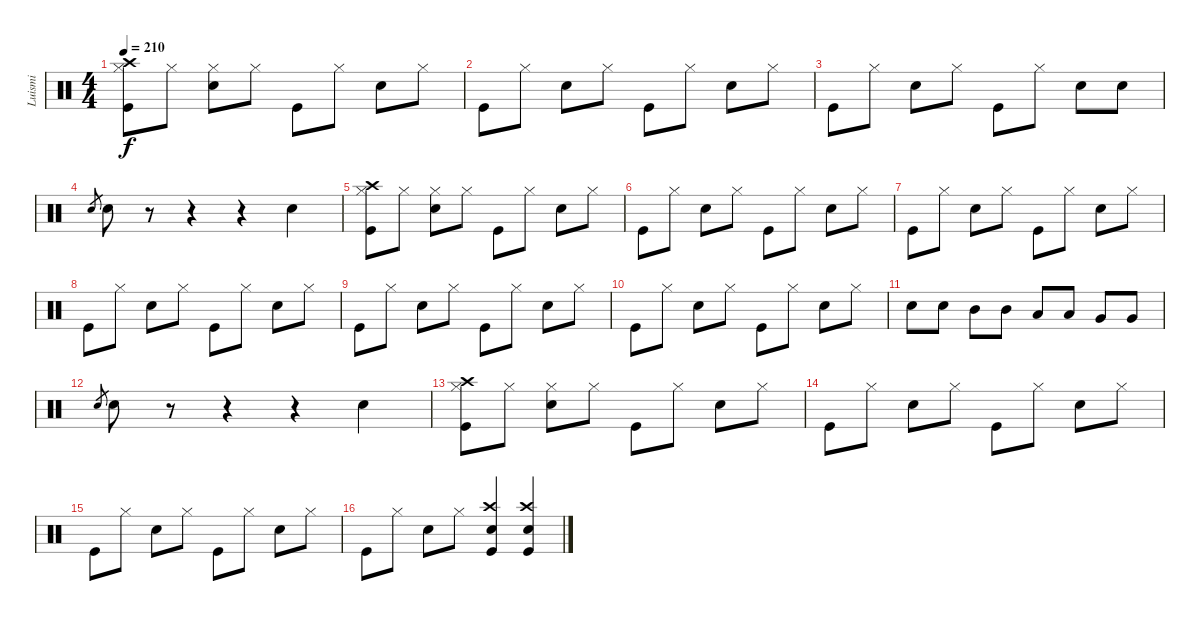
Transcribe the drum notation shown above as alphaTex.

\track ("Luismi" "Luismi") {instrument percussion}
\staff {score}
\articulation defaults
\ts (4 4)
\tempo 210
\clef neutral
\ks c
("Kick (hit)" "Crash high (hit)" "Hi-Hat (closed)").8{dy f} "Hi-Hat (closed)".8 ("Snare (hit) 2" "Hi-Hat (closed)").8 "Hi-Hat (closed)".8 "Kick (hit)".8 "Hi-Hat (closed)".8 "Snare (hit) 2".8 "Hi-Hat (closed)".8 |
"Kick (hit)".8 "Hi-Hat (closed)".8 "Snare (hit) 2".8 "Hi-Hat (closed)".8 "Kick (hit)".8 "Hi-Hat (closed)".8 "Snare (hit) 2".8 "Hi-Hat (closed)".8 |
"Kick (hit)".8 "Hi-Hat (closed)".8 "Snare (hit) 2".8 "Hi-Hat (closed)".8 "Kick (hit)".8 "Hi-Hat (closed)".8 "Snare (hit) 2".8 "Snare (hit) 2".8 |
"Snare (hit) 2".8{gr} "Snare (hit) 2".8 r.8 r.4 r.4 "Snare (hit) 2".4 |
("Kick (hit)" "Crash high (hit)" "Hi-Hat (closed)").8 "Hi-Hat (closed)".8 ("Snare (hit) 2" "Hi-Hat (closed)").8 "Hi-Hat (closed)".8 "Kick (hit)".8 "Hi-Hat (closed)".8 "Snare (hit) 2".8 "Hi-Hat (closed)".8 |
"Kick (hit)".8 "Hi-Hat (closed)".8 "Snare (hit) 2".8 "Hi-Hat (closed)".8 "Kick (hit)".8 "Hi-Hat (closed)".8 "Snare (hit) 2".8 "Hi-Hat (closed)".8 |
"Kick (hit)".8 "Hi-Hat (closed)".8 "Snare (hit) 2".8 "Hi-Hat (closed)".8 "Kick (hit)".8 "Hi-Hat (closed)".8 "Snare (hit) 2".8 "Hi-Hat (closed)".8 |
"Kick (hit)".8 "Hi-Hat (closed)".8 "Snare (hit) 2".8 "Hi-Hat (closed)".8 "Kick (hit)".8 "Hi-Hat (closed)".8 "Snare (hit) 2".8 "Hi-Hat (closed)".8 |
"Kick (hit)".8 "Hi-Hat (closed)".8 "Snare (hit) 2".8 "Hi-Hat (closed)".8 "Kick (hit)".8 "Hi-Hat (closed)".8 "Snare (hit) 2".8 "Hi-Hat (closed)".8 |
"Kick (hit)".8 "Hi-Hat (closed)".8 "Snare (hit) 2".8 "Hi-Hat (closed)".8 "Kick (hit)".8 "Hi-Hat (closed)".8 "Snare (hit) 2".8 "Hi-Hat (closed)".8 |
"Snare (hit) 2".8 "Snare (hit) 2".8 "Mid Tom (hit)".8 "Mid Tom (hit)".8 "Low Tom (hit)".8 "Low Tom (hit)".8 "Very Low Tom (hit)".8 "Very Low Tom (hit)".8 |
"Snare (hit) 2".8{gr} "Snare (hit) 2".8 r.8 r.4 r.4 "Snare (hit) 2".4 |
("Kick (hit)" "Crash high (hit)" "Hi-Hat (closed)").8 "Hi-Hat (closed)".8 ("Snare (hit) 2" "Hi-Hat (closed)").8 "Hi-Hat (closed)".8 "Kick (hit)".8 "Hi-Hat (closed)".8 "Snare (hit) 2".8 "Hi-Hat (closed)".8 |
"Kick (hit)".8 "Hi-Hat (closed)".8 "Snare (hit) 2".8 "Hi-Hat (closed)".8 "Kick (hit)".8 "Hi-Hat (closed)".8 "Snare (hit) 2".8 "Hi-Hat (closed)".8 |
"Kick (hit)".8 "Hi-Hat (closed)".8 "Snare (hit) 2".8 "Hi-Hat (closed)".8 "Kick (hit)".8 "Hi-Hat (closed)".8 "Snare (hit) 2".8 "Hi-Hat (closed)".8 |
"Kick (hit)".8 "Hi-Hat (closed)".8 "Snare (hit) 2".8 "Hi-Hat (closed)".8 ("Snare (hit) 2" "Kick (hit)" "Crash high (hit)").4 ("Snare (hit) 2" "Kick (hit)" "Crash high (hit)").4
